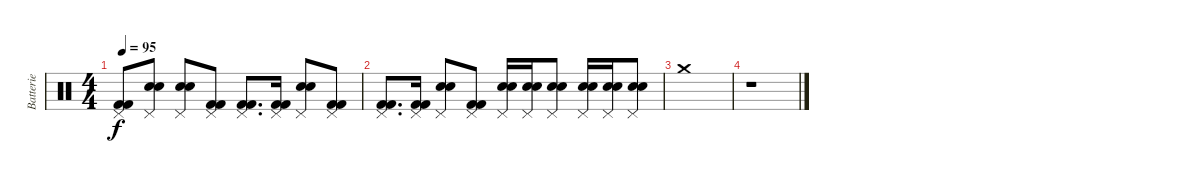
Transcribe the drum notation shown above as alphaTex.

\track ("Batterie" "Batterie") {instrument percussion}
\staff {score}
\articulation defaults
\ts (4 4)
\tempo 95
\clef neutral
\ks c
("Pedal Hi-Hat (hit)" "Kick (hit) 2" "Kick (hit) 2").8{dy f} ("Pedal Hi-Hat (hit)" "Electric Snare (hit)" "Electric Snare (hit)").8 ("Pedal Hi-Hat (hit)" "Electric Snare (hit)" "Electric Snare (hit)").8 ("Pedal Hi-Hat (hit)" "Kick (hit) 2" "Kick (hit) 2").8 ("Pedal Hi-Hat (hit)" "Kick (hit) 2" "Kick (hit) 2").8{d} ("Pedal Hi-Hat (hit)" "Kick (hit) 2" "Kick (hit) 2").16 ("Pedal Hi-Hat (hit)" "Electric Snare (hit)" "Electric Snare (hit)").8 ("Pedal Hi-Hat (hit)" "Kick (hit) 2" "Kick (hit) 2").8 |
("Pedal Hi-Hat (hit)" "Kick (hit) 2" "Kick (hit) 2").8{d} ("Pedal Hi-Hat (hit)" "Kick (hit) 2" "Kick (hit) 2").16 ("Pedal Hi-Hat (hit)" "Electric Snare (hit)" "Electric Snare (hit)").8 ("Pedal Hi-Hat (hit)" "Kick (hit) 2" "Kick (hit) 2").8 ("Pedal Hi-Hat (hit)" "Electric Snare (hit)" "Electric Snare (hit)").16 ("Pedal Hi-Hat (hit)" "Electric Snare (hit)" "Electric Snare (hit)").16 ("Pedal Hi-Hat (hit)" "Electric Snare (hit)" "Electric Snare (hit)").8 ("Pedal Hi-Hat (hit)" "Electric Snare (hit)" "Electric Snare (hit)").16 ("Pedal Hi-Hat (hit)" "Electric Snare (hit)" "Electric Snare (hit)").16 ("Pedal Hi-Hat (hit)" "Electric Snare (hit)" "Electric Snare (hit)").8 |
"Crash medium (hit)".1 |
r.1
